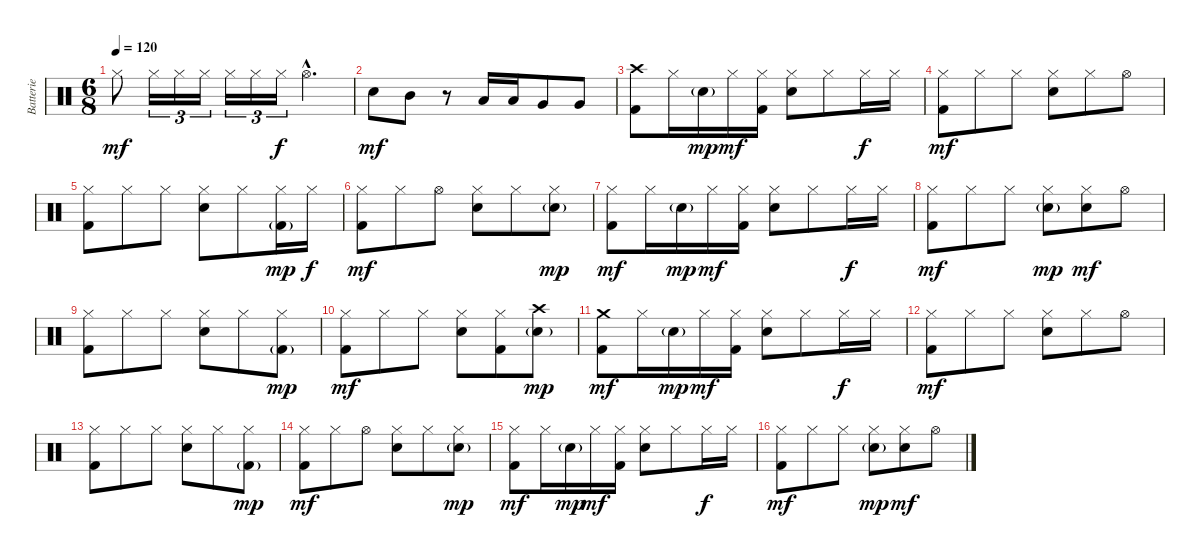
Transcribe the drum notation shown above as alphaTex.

\track ("Batterie" "Batterie") {instrument percussion}
\staff {score}
\articulation defaults
\ts (6 8)
\tempo 120
\clef neutral
\ks c "Hi-Hat (closed)".8{dy mf} "Hi-Hat (closed)".16{tu (3 2)} "Hi-Hat (closed)".16{tu (3 2)} "Hi-Hat (closed)".16{tu (3 2)} "Hi-Hat (closed)".16{tu (3 2)} "Hi-Hat (closed)".16{tu (3 2)} "Hi-Hat (closed)".16{tu (3 2) dy f} "Hi-Hat (open)"{hac}.4{d}
|
"Electric Snare (hit)".8{dy mf} "Mid Tom (hit)".8 r.8 "Low Tom (hit)".16 "Low Tom (hit)".16 "Very Low Tom (hit)".8 "Very Low Tom (hit)".8 |
("Crash high (hit)" "Kick (hit) 2").8 "Hi-Hat (closed)".16 "Electric Snare (hit)"{g}.16{dy mp} "Hi-Hat (closed)".16{dy mf} ("Hi-Hat (closed)" "Kick (hit) 2").16 ("Hi-Hat (closed)" "Electric Snare (hit)").8 "Hi-Hat (closed)".8 "Hi-Hat (closed)".16{dy f} "Hi-Hat (closed)".16 |
("Hi-Hat (closed)" "Kick (hit) 2").8{dy mf} "Hi-Hat (closed)".8 "Hi-Hat (closed)".8 ("Hi-Hat (closed)" "Electric Snare (hit)").8 "Hi-Hat (closed)".8 "Hi-Hat (open)".8 |
("Hi-Hat (closed)" "Kick (hit) 2").8 "Hi-Hat (closed)".8 "Hi-Hat (closed)".8 ("Hi-Hat (closed)" "Electric Snare (hit)").8 "Hi-Hat (closed)".8 ("Hi-Hat (closed)" "Kick (hit) 2"{g}).16{dy mp} "Hi-Hat (closed)".16{dy f} |
("Hi-Hat (closed)" "Kick (hit) 2").8{dy mf} "Hi-Hat (closed)".8 "Hi-Hat (open)".8 ("Hi-Hat (closed)" "Electric Snare (hit)").8 "Hi-Hat (closed)".8 ("Hi-Hat (closed)" "Electric Snare (hit)"{g}).8{dy mp} |
("Hi-Hat (closed)" "Kick (hit) 2").8{dy mf} "Hi-Hat (closed)".16 "Electric Snare (hit)"{g}.16{dy mp} "Hi-Hat (closed)".16{dy mf} ("Hi-Hat (closed)" "Kick (hit) 2").16 ("Hi-Hat (closed)" "Electric Snare (hit)").8 "Hi-Hat (closed)".8 "Hi-Hat (closed)".16{dy f} "Hi-Hat (closed)".16 |
("Hi-Hat (closed)" "Kick (hit) 2").8{dy mf} "Hi-Hat (closed)".8 "Hi-Hat (closed)".8 ("Hi-Hat (closed)" "Electric Snare (hit)"{g}).8{dy mp} ("Hi-Hat (closed)" "Electric Snare (hit)").8{dy mf} "Hi-Hat (open)".8 |
("Hi-Hat (closed)" "Kick (hit) 2").8 "Hi-Hat (closed)".8 "Hi-Hat (closed)".8 ("Hi-Hat (closed)" "Electric Snare (hit)").8 "Hi-Hat (closed)".8 ("Hi-Hat (closed)" "Kick (hit) 2"{g}).8{dy mp} |
("Hi-Hat (closed)" "Kick (hit) 2").8{dy mf} "Hi-Hat (closed)".8 "Hi-Hat (closed)".8 ("Hi-Hat (closed)" "Electric Snare (hit)").8 ("Hi-Hat (closed)" "Kick (hit) 2").8 ("Crash high (hit)" "Electric Snare (hit)"{g}).8{dy mp} |
("Crash medium (hit)" "Kick (hit) 2").8{dy mf} "Hi-Hat (closed)".16 "Electric Snare (hit)"{g}.16{dy mp} "Hi-Hat (closed)".16{dy mf} ("Hi-Hat (closed)" "Kick (hit) 2").16 ("Hi-Hat (closed)" "Electric Snare (hit)").8 "Hi-Hat (closed)".8 "Hi-Hat (closed)".16{dy f} "Hi-Hat (closed)".16 |
("Hi-Hat (closed)" "Kick (hit) 2").8{dy mf} "Hi-Hat (closed)".8 "Hi-Hat (closed)".8 ("Hi-Hat (closed)" "Electric Snare (hit)").8 "Hi-Hat (closed)".8 "Hi-Hat (open)".8 |
("Hi-Hat (closed)" "Kick (hit) 2").8 "Hi-Hat (closed)".8 "Hi-Hat (closed)".8 ("Hi-Hat (closed)" "Electric Snare (hit)").8 "Hi-Hat (closed)".8 ("Hi-Hat (closed)" "Kick (hit) 2"{g}).8{dy mp} |
("Hi-Hat (closed)" "Kick (hit) 2").8{dy mf} "Hi-Hat (closed)".8 "Hi-Hat (open)".8 ("Hi-Hat (closed)" "Electric Snare (hit)").8 "Hi-Hat (closed)".8 ("Hi-Hat (closed)" "Electric Snare (hit)"{g}).8{dy mp} |
("Hi-Hat (closed)" "Kick (hit) 2").8{dy mf} "Hi-Hat (closed)".16 "Electric Snare (hit)"{g}.16{dy mp} "Hi-Hat (closed)".16{dy mf} ("Hi-Hat (closed)" "Kick (hit) 2").16 ("Hi-Hat (closed)" "Electric Snare (hit)").8 "Hi-Hat (closed)".8 "Hi-Hat (closed)".16{dy f} "Hi-Hat (closed)".16 |
("Hi-Hat (closed)" "Kick (hit) 2").8{dy mf} "Hi-Hat (closed)".8 "Hi-Hat (closed)".8 ("Hi-Hat (closed)" "Electric Snare (hit)"{g}).8{dy mp} ("Hi-Hat (closed)" "Electric Snare (hit)").8{dy mf} "Hi-Hat (open)".8
